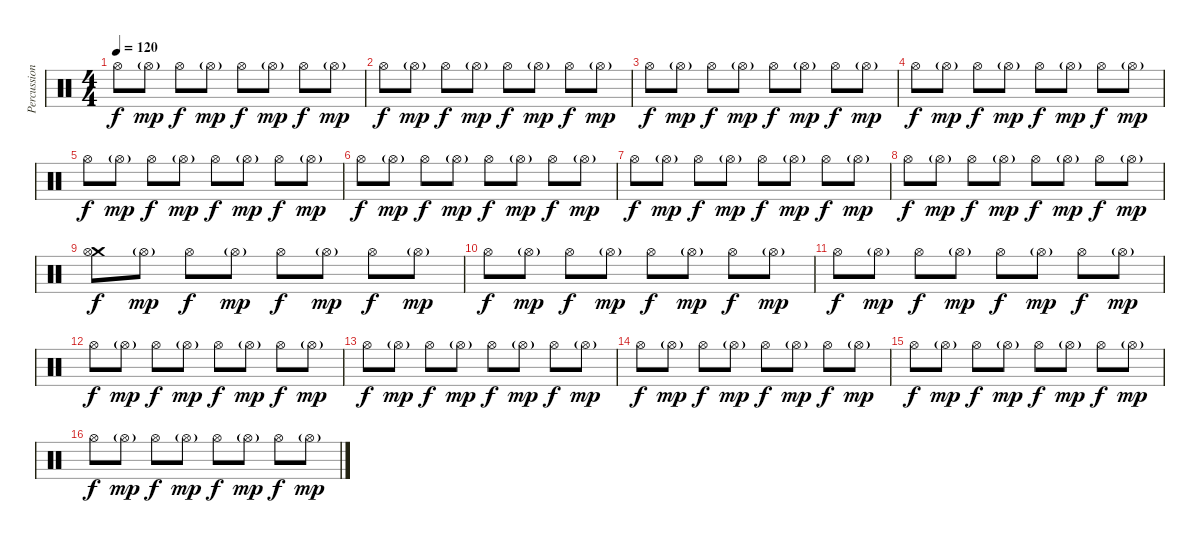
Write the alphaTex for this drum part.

\track ("Percussions" "Percussion") {instrument percussion}
\staff {score}
\articulation defaults
\ts (4 4)
\tempo 120
\clef neutral
\ks c "Hi-Hat (open)".8{dy f} "Hi-Hat (open)"{g}.8{dy mp} "Hi-Hat (open)".8{dy f} "Hi-Hat (open)"{g}.8{dy mp} "Hi-Hat (open)".8{dy f} "Hi-Hat (open)"{g}.8{dy mp} "Hi-Hat (open)".8{dy f} "Hi-Hat (open)"{g}.8{dy mp}
|
"Hi-Hat (open)".8{dy f} "Hi-Hat (open)"{g}.8{dy mp} "Hi-Hat (open)".8{dy f} "Hi-Hat (open)"{g}.8{dy mp} "Hi-Hat (open)".8{dy f} "Hi-Hat (open)"{g}.8{dy mp} "Hi-Hat (open)".8{dy f} "Hi-Hat (open)"{g}.8{dy mp} |
"Hi-Hat (open)".8{dy f} "Hi-Hat (open)"{g}.8{dy mp} "Hi-Hat (open)".8{dy f} "Hi-Hat (open)"{g}.8{dy mp} "Hi-Hat (open)".8{dy f} "Hi-Hat (open)"{g}.8{dy mp} "Hi-Hat (open)".8{dy f} "Hi-Hat (open)"{g}.8{dy mp} |
"Hi-Hat (open)".8{dy f} "Hi-Hat (open)"{g}.8{dy mp} "Hi-Hat (open)".8{dy f} "Hi-Hat (open)"{g}.8{dy mp} "Hi-Hat (open)".8{dy f} "Hi-Hat (open)"{g}.8{dy mp} "Hi-Hat (open)".8{dy f} "Hi-Hat (open)"{g}.8{dy mp} |
"Hi-Hat (open)".8{dy f} "Hi-Hat (open)"{g}.8{dy mp} "Hi-Hat (open)".8{dy f} "Hi-Hat (open)"{g}.8{dy mp} "Hi-Hat (open)".8{dy f} "Hi-Hat (open)"{g}.8{dy mp} "Hi-Hat (open)".8{dy f} "Hi-Hat (open)"{g}.8{dy mp} |
"Hi-Hat (open)".8{dy f} "Hi-Hat (open)"{g}.8{dy mp} "Hi-Hat (open)".8{dy f} "Hi-Hat (open)"{g}.8{dy mp} "Hi-Hat (open)".8{dy f} "Hi-Hat (open)"{g}.8{dy mp} "Hi-Hat (open)".8{dy f} "Hi-Hat (open)"{g}.8{dy mp} |
"Hi-Hat (open)".8{dy f} "Hi-Hat (open)"{g}.8{dy mp} "Hi-Hat (open)".8{dy f} "Hi-Hat (open)"{g}.8{dy mp} "Hi-Hat (open)".8{dy f} "Hi-Hat (open)"{g}.8{dy mp} "Hi-Hat (open)".8{dy f} "Hi-Hat (open)"{g}.8{dy mp} |
"Hi-Hat (open)".8{dy f} "Hi-Hat (open)"{g}.8{dy mp} "Hi-Hat (open)".8{dy f} "Hi-Hat (open)"{g}.8{dy mp} "Hi-Hat (open)".8{dy f} "Hi-Hat (open)"{g}.8{dy mp} "Hi-Hat (open)".8{dy f} "Hi-Hat (open)"{g}.8{dy mp} |
("Crash medium (hit)" "Hi-Hat (open)").8{dy f} "Hi-Hat (open)"{g}.8{dy mp} "Hi-Hat (open)".8{dy f} "Hi-Hat (open)"{g}.8{dy mp} "Hi-Hat (open)".8{dy f} "Hi-Hat (open)"{g}.8{dy mp} "Hi-Hat (open)".8{dy f} "Hi-Hat (open)"{g}.8{dy mp} |
"Hi-Hat (open)".8{dy f} "Hi-Hat (open)"{g}.8{dy mp} "Hi-Hat (open)".8{dy f} "Hi-Hat (open)"{g}.8{dy mp} "Hi-Hat (open)".8{dy f} "Hi-Hat (open)"{g}.8{dy mp} "Hi-Hat (open)".8{dy f} "Hi-Hat (open)"{g}.8{dy mp} |
"Hi-Hat (open)".8{dy f} "Hi-Hat (open)"{g}.8{dy mp} "Hi-Hat (open)".8{dy f} "Hi-Hat (open)"{g}.8{dy mp} "Hi-Hat (open)".8{dy f} "Hi-Hat (open)"{g}.8{dy mp} "Hi-Hat (open)".8{dy f} "Hi-Hat (open)"{g}.8{dy mp} |
"Hi-Hat (open)".8{dy f} "Hi-Hat (open)"{g}.8{dy mp} "Hi-Hat (open)".8{dy f} "Hi-Hat (open)"{g}.8{dy mp} "Hi-Hat (open)".8{dy f} "Hi-Hat (open)"{g}.8{dy mp} "Hi-Hat (open)".8{dy f} "Hi-Hat (open)"{g}.8{dy mp} |
"Hi-Hat (open)".8{dy f} "Hi-Hat (open)"{g}.8{dy mp} "Hi-Hat (open)".8{dy f} "Hi-Hat (open)"{g}.8{dy mp} "Hi-Hat (open)".8{dy f} "Hi-Hat (open)"{g}.8{dy mp} "Hi-Hat (open)".8{dy f} "Hi-Hat (open)"{g}.8{dy mp} |
"Hi-Hat (open)".8{dy f} "Hi-Hat (open)"{g}.8{dy mp} "Hi-Hat (open)".8{dy f} "Hi-Hat (open)"{g}.8{dy mp} "Hi-Hat (open)".8{dy f} "Hi-Hat (open)"{g}.8{dy mp} "Hi-Hat (open)".8{dy f} "Hi-Hat (open)"{g}.8{dy mp} |
"Hi-Hat (open)".8{dy f} "Hi-Hat (open)"{g}.8{dy mp} "Hi-Hat (open)".8{dy f} "Hi-Hat (open)"{g}.8{dy mp} "Hi-Hat (open)".8{dy f} "Hi-Hat (open)"{g}.8{dy mp} "Hi-Hat (open)".8{dy f} "Hi-Hat (open)"{g}.8{dy mp} |
"Hi-Hat (open)".8{dy f} "Hi-Hat (open)"{g}.8{dy mp} "Hi-Hat (open)".8{dy f} "Hi-Hat (open)"{g}.8{dy mp} "Hi-Hat (open)".8{dy f} "Hi-Hat (open)"{g}.8{dy mp} "Hi-Hat (open)".8{dy f} "Hi-Hat (open)"{g}.8{dy mp}
